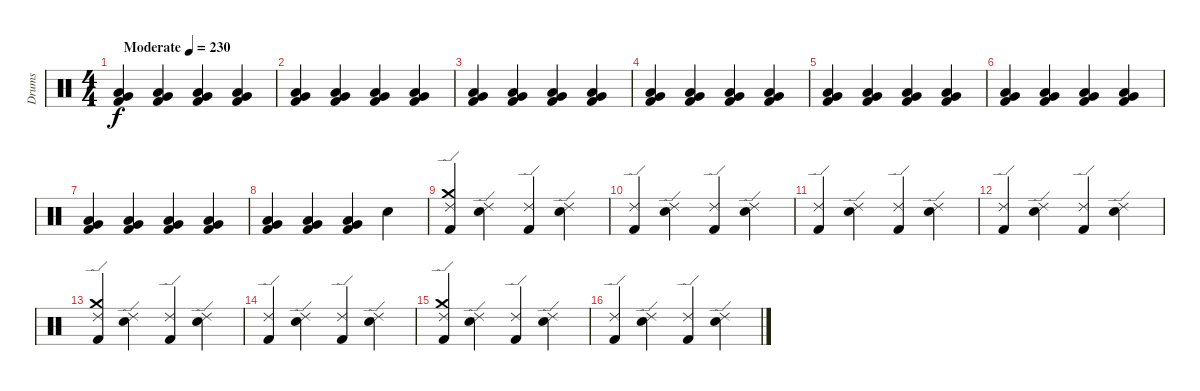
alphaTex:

\track ("Drums" "Drums") {instrument percussion}
\staff {score}
\articulation defaults
\ts (4 4)
\tempo (230 "Moderate")
\clef neutral
\ks c
("Very Low Tom (hit)" "Low Tom (hit)" "Kick (hit) 2").4{dy f} ("Very Low Tom (hit)" "Low Tom (hit)" "Kick (hit) 2").4 ("Very Low Tom (hit)" "Low Tom (hit)" "Kick (hit) 2").4 ("Very Low Tom (hit)" "Low Tom (hit)" "Kick (hit) 2").4 |
("Very Low Tom (hit)" "Low Tom (hit)" "Kick (hit) 2").4 ("Very Low Tom (hit)" "Low Tom (hit)" "Kick (hit) 2").4 ("Very Low Tom (hit)" "Low Tom (hit)" "Kick (hit) 2").4 ("Very Low Tom (hit)" "Low Tom (hit)" "Kick (hit) 2").4 |
("Very Low Tom (hit)" "Low Tom (hit)" "Kick (hit) 2").4 ("Very Low Tom (hit)" "Low Tom (hit)" "Kick (hit) 2").4 ("Very Low Tom (hit)" "Low Tom (hit)" "Kick (hit) 2").4 ("Very Low Tom (hit)" "Low Tom (hit)" "Kick (hit) 2").4 |
("Very Low Tom (hit)" "Low Tom (hit)" "Kick (hit) 2").4 ("Very Low Tom (hit)" "Low Tom (hit)" "Kick (hit) 2").4 ("Very Low Tom (hit)" "Low Tom (hit)" "Kick (hit) 2").4 ("Very Low Tom (hit)" "Low Tom (hit)" "Kick (hit) 2").4 |
("Very Low Tom (hit)" "Low Tom (hit)" "Kick (hit) 2").4 ("Very Low Tom (hit)" "Low Tom (hit)" "Kick (hit) 2").4 ("Very Low Tom (hit)" "Low Tom (hit)" "Kick (hit) 2").4 ("Very Low Tom (hit)" "Low Tom (hit)" "Kick (hit) 2").4 |
("Very Low Tom (hit)" "Low Tom (hit)" "Kick (hit) 2").4 ("Very Low Tom (hit)" "Low Tom (hit)" "Kick (hit) 2").4 ("Very Low Tom (hit)" "Low Tom (hit)" "Kick (hit) 2").4 ("Very Low Tom (hit)" "Low Tom (hit)" "Kick (hit) 2").4 |
("Very Low Tom (hit)" "Low Tom (hit)" "Kick (hit) 2").4 ("Very Low Tom (hit)" "Low Tom (hit)" "Kick (hit) 2").4 ("Very Low Tom (hit)" "Low Tom (hit)" "Kick (hit) 2").4 ("Very Low Tom (hit)" "Low Tom (hit)" "Kick (hit) 2").4 |
("Very Low Tom (hit)" "Low Tom (hit)" "Kick (hit) 2").4 ("Very Low Tom (hit)" "Low Tom (hit)" "Kick (hit) 2").4 ("Very Low Tom (hit)" "Low Tom (hit)" "Kick (hit) 2").4 "Snare (hit) 2".4 |
("Crash medium (hit)" "Ride (edge) 2" "Kick (hit) 2").4 ("Ride (edge) 2" "Snare (hit) 2").4 ("Ride (edge) 2" "Kick (hit) 2").4 ("Ride (edge) 2" "Snare (hit) 2").4 |
("Ride (edge) 2" "Kick (hit) 2").4 ("Ride (edge) 2" "Snare (hit) 2").4 ("Ride (edge) 2" "Kick (hit) 2").4 ("Ride (edge) 2" "Snare (hit) 2").4 |
("Ride (edge) 2" "Kick (hit) 2").4 ("Ride (edge) 2" "Snare (hit) 2").4 ("Ride (edge) 2" "Kick (hit) 2").4 ("Ride (edge) 2" "Snare (hit) 2").4 |
("Ride (edge) 2" "Kick (hit) 2").4 ("Ride (edge) 2" "Snare (hit) 2").4 ("Ride (edge) 2" "Kick (hit) 2").4 ("Ride (edge) 2" "Snare (hit) 2").4 |
("Crash medium (hit)" "Ride (edge) 2" "Kick (hit) 2").4 ("Ride (edge) 2" "Snare (hit) 2").4 ("Ride (edge) 2" "Kick (hit) 2").4 ("Ride (edge) 2" "Snare (hit) 2").4 |
("Ride (edge) 2" "Kick (hit) 2").4 ("Ride (edge) 2" "Snare (hit) 2").4 ("Ride (edge) 2" "Kick (hit) 2").4 ("Ride (edge) 2" "Snare (hit) 2").4 |
("Crash medium (hit)" "Ride (edge) 2" "Kick (hit) 2").4 ("Ride (edge) 2" "Snare (hit) 2").4 ("Ride (edge) 2" "Kick (hit) 2").4 ("Ride (edge) 2" "Snare (hit) 2").4 |
("Ride (edge) 2" "Kick (hit) 2").4 ("Ride (edge) 2" "Snare (hit) 2").4 ("Ride (edge) 2" "Kick (hit) 2").4 ("Ride (edge) 2" "Snare (hit) 2").4
